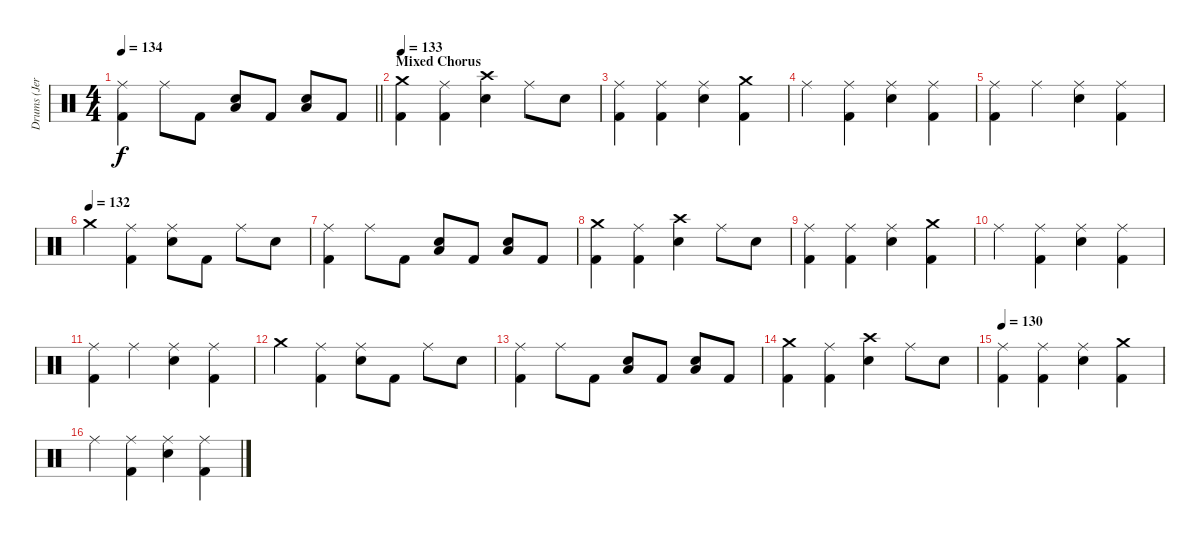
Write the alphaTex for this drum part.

\track ("Drums (Jeremy Taggart)" "Drums (Jer") {instrument percussion}
\staff
\articulation defaults
\ts (4 4)
\tempo 134
\clef neutral
\barLineRight lightlight
\ks c
("Ride (middle)" "Kick (hit) 2").4{dy f} "Ride (middle)".8 "Kick (hit) 2".8 ("Low Floor Tom (hit)" "Snare (hit) 2").8 "Kick (hit) 2".8 ("Low Floor Tom (hit)" "Snare (hit) 2").8 "Kick (hit) 2".8 |
\section ("" "Mixed Chorus")
\tempo 133
("Crash medium (hit)" "Kick (hit) 2").4 ("Ride (middle)" "Kick (hit) 2").4 ("Crash high (hit)" "Snare (hit) 2").4 "Ride (middle)".8 "Snare (hit) 2".8 |
("Ride (middle)" "Kick (hit) 2").4 ("Ride (middle)" "Kick (hit) 2").4 ("Ride (middle)" "Snare (hit) 2").4 ("Crash medium (hit)" "Kick (hit) 2").4 |
"Ride (middle)".4 ("Ride (middle)" "Kick (hit) 2").4 ("Ride (middle)" "Snare (hit) 2").4 ("Ride (middle)" "Kick (hit) 2").4 |
("Ride (middle)" "Kick (hit) 2").4 "Ride (middle)".4 ("Ride (middle)" "Snare (hit) 2").4 ("Ride (middle)" "Kick (hit) 2").4 |
\tempo (132)
"Crash medium (hit)".4 ("Ride (middle)" "Kick (hit) 2").4 ("Ride (middle)" "Snare (hit) 2").8 "Kick (hit) 2".8 "Ride (middle)".8 "Snare (hit) 2".8 |
("Ride (middle)" "Kick (hit) 2").4 "Ride (middle)".8 "Kick (hit) 2".8 ("Low Floor Tom (hit)" "Snare (hit) 2").8 "Kick (hit) 2".8 ("Low Floor Tom (hit)" "Snare (hit) 2").8 "Kick (hit) 2".8 |
("Crash medium (hit)" "Kick (hit) 2").4 ("Ride (middle)" "Kick (hit) 2").4 ("Crash high (hit)" "Snare (hit) 2").4 "Ride (middle)".8 "Snare (hit) 2".8 |
("Ride (middle)" "Kick (hit) 2").4 ("Ride (middle)" "Kick (hit) 2").4 ("Ride (middle)" "Snare (hit) 2").4 ("Crash medium (hit)" "Kick (hit) 2").4 |
"Ride (middle)".4 ("Ride (middle)" "Kick (hit) 2").4 ("Ride (middle)" "Snare (hit) 2").4 ("Ride (middle)" "Kick (hit) 2").4 |
("Ride (middle)" "Kick (hit) 2").4 "Ride (middle)".4 ("Ride (middle)" "Snare (hit) 2").4 ("Ride (middle)" "Kick (hit) 2").4 |
"Crash medium (hit)".4 ("Ride (middle)" "Kick (hit) 2").4 ("Ride (middle)" "Snare (hit) 2").8 "Kick (hit) 2".8 "Ride (middle)".8 "Snare (hit) 2".8 |
("Ride (middle)" "Kick (hit) 2").4 "Ride (middle)".8 "Kick (hit) 2".8 ("Low Floor Tom (hit)" "Snare (hit) 2").8 "Kick (hit) 2".8 ("Low Floor Tom (hit)" "Snare (hit) 2").8 "Kick (hit) 2".8 |
("Crash medium (hit)" "Kick (hit) 2").4 ("Ride (middle)" "Kick (hit) 2").4 ("Crash high (hit)" "Snare (hit) 2").4 "Ride (middle)".8 "Snare (hit) 2".8 |
\tempo 130
("Ride (middle)" "Kick (hit) 2").4 ("Ride (middle)" "Kick (hit) 2").4 ("Ride (middle)" "Snare (hit) 2").4 ("Crash medium (hit)" "Kick (hit) 2").4 |
"Ride (middle)".4 ("Ride (middle)" "Kick (hit) 2").4 ("Ride (middle)" "Snare (hit) 2").4 ("Ride (middle)" "Kick (hit) 2").4
